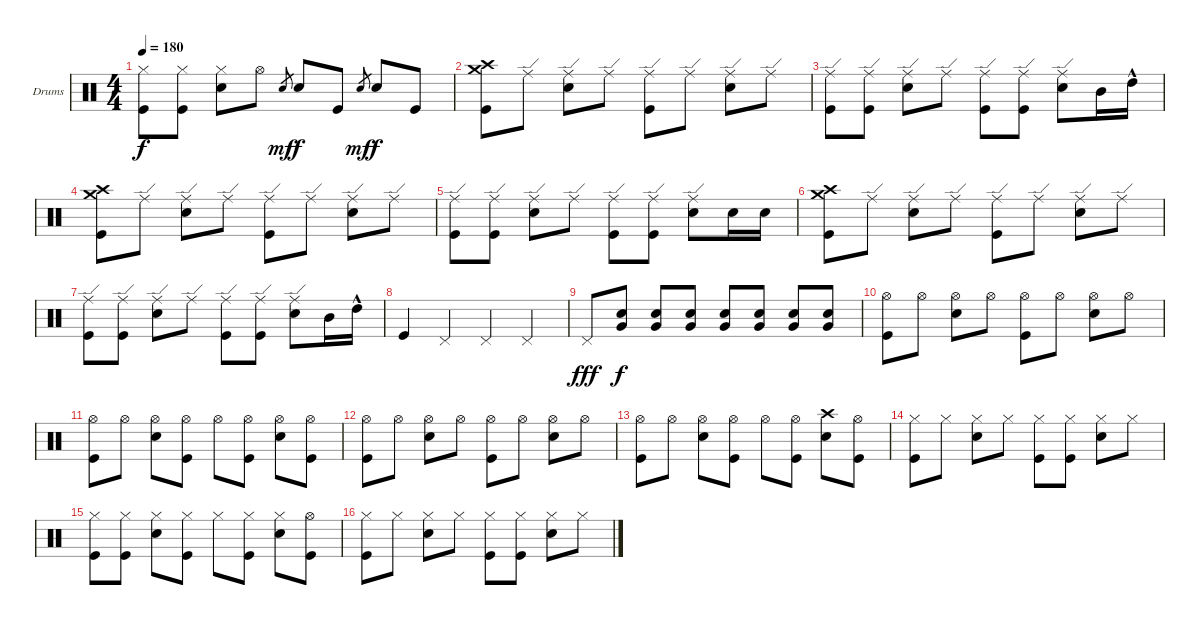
\bracketExtendMode groupsimilarinstruments
\firstSystemTrackNameOrientation horizontal
\otherSystemsTrackNameOrientation horizontal
\track ("Drumkit" "Drums") {instrument percussion}
\staff {score}
\articulation defaults
\ts (4 4)
\tempo 180
\clef neutral
\ks c
("Hi-Hat (closed)" "Kick (hit)").8{dy f} ("Hi-Hat (closed)" "Kick (hit)").8 ("Hi-Hat (closed)" "Snare (hit) 2").8 "Hi-Hat (open)".8 "Snare (hit) 2".8{gr dy mf} "Snare (hit) 2".8{dy f} "Kick (hit)".8 "Snare (hit) 2".8{gr dy mf} "Snare (hit) 2".8{dy f} "Kick (hit)".8 |
("Kick (hit)" "Crash high (hit)" "Crash medium (hit)").8 "Ride (edge)".8 ("Snare (hit) 2" "Ride (edge)").8 "Ride (edge)".8 ("Kick (hit)" "Ride (edge)").8 "Ride (edge)".8 ("Snare (hit) 2" "Ride (edge)").8 "Ride (edge)".8 |
("Kick (hit)" "Ride (edge)").8 ("Kick (hit)" "Ride (edge)").8 ("Snare (hit) 2" "Ride (edge)").8 "Ride (edge)".8 ("Kick (hit)" "Ride (edge)").8 ("Kick (hit)" "Ride (edge)").8 ("Snare (hit) 2" "Ride (edge)").8 "Mid Tom (hit)".16 "High Tom (hit)"{hac}.16 |
("Kick (hit)" "Crash high (hit)" "Crash medium (hit)").8 "Ride (edge)".8 ("Snare (hit) 2" "Ride (edge)").8 "Ride (edge)".8 ("Kick (hit)" "Ride (edge)").8 "Ride (edge)".8 ("Snare (hit) 2" "Ride (edge)").8 "Ride (edge)".8 |
("Kick (hit)" "Ride (edge)").8 ("Kick (hit)" "Ride (edge)").8 ("Snare (hit) 2" "Ride (edge)").8 "Ride (edge)".8 ("Kick (hit)" "Ride (edge)").8 ("Kick (hit)" "Ride (edge)").8 ("Snare (hit) 2" "Ride (edge)").8 "Snare (hit) 2".16 "Snare (hit) 2".16 |
("Kick (hit)" "Crash high (hit)" "Crash medium (hit)").8 "Ride (edge)".8 ("Snare (hit) 2" "Ride (edge)").8 "Ride (edge)".8 ("Kick (hit)" "Ride (edge)").8 "Ride (edge)".8 ("Snare (hit) 2" "Ride (edge)").8 "Ride (edge)".8 |
("Kick (hit)" "Ride (edge)").8 ("Kick (hit)" "Ride (edge)").8 ("Snare (hit) 2" "Ride (edge)").8 "Ride (edge)".8 ("Kick (hit)" "Ride (edge)").8 ("Kick (hit)" "Ride (edge)").8 ("Snare (hit) 2" "Ride (edge)").8 "Mid Tom (hit)".16 "High Tom (hit)"{hac}.16 |
"Kick (hit)".4 "Pedal Hi-Hat (hit)".4 "Pedal Hi-Hat (hit)".4 "Pedal Hi-Hat (hit)".4 |
"Pedal Hi-Hat (hit)".8{dy fff} ("Snare (hit) 2" "Very Low Tom (hit)").8{dy f} ("Snare (hit) 2" "Very Low Tom (hit)").8 ("Snare (hit) 2" "Very Low Tom (hit)").8 ("Snare (hit) 2" "Very Low Tom (hit)").8 ("Snare (hit) 2" "Very Low Tom (hit)").8 ("Snare (hit) 2" "Very Low Tom (hit)").8 ("Snare (hit) 2" "Very Low Tom (hit)").8 |
("Hi-Hat (open)" "Kick (hit)").8 "Hi-Hat (open)".8 ("Hi-Hat (open)" "Snare (hit) 2").8 "Hi-Hat (open)".8 ("Hi-Hat (open)" "Kick (hit)").8 "Hi-Hat (open)".8 ("Hi-Hat (open)" "Snare (hit) 2").8 "Hi-Hat (open)".8 |
("Hi-Hat (open)" "Kick (hit)").8 "Hi-Hat (open)".8 ("Hi-Hat (open)" "Snare (hit) 2").8 ("Hi-Hat (open)" "Kick (hit)").8 "Hi-Hat (open)".8 ("Hi-Hat (open)" "Kick (hit)").8 ("Hi-Hat (open)" "Snare (hit) 2").8 ("Hi-Hat (open)" "Kick (hit)").8 |
("Hi-Hat (open)" "Kick (hit)").8 "Hi-Hat (open)".8 ("Hi-Hat (open)" "Snare (hit) 2").8 "Hi-Hat (open)".8 ("Hi-Hat (open)" "Kick (hit)").8 "Hi-Hat (open)".8 ("Hi-Hat (open)" "Snare (hit) 2").8 "Hi-Hat (open)".8 |
("Hi-Hat (open)" "Kick (hit)").8 "Hi-Hat (open)".8 ("Hi-Hat (open)" "Snare (hit) 2").8 ("Hi-Hat (open)" "Kick (hit)").8 "Hi-Hat (open)".8 ("Hi-Hat (open)" "Kick (hit)").8 ("Crash high (hit)" "Snare (hit) 2").8 ("Hi-Hat (open)" "Kick (hit)").8 |
("Hi-Hat (closed)" "Kick (hit)").8 "Hi-Hat (closed)".8 ("Hi-Hat (closed)" "Snare (hit) 2").8 "Hi-Hat (closed)".8 ("Hi-Hat (closed)" "Kick (hit)").8 ("Hi-Hat (closed)" "Kick (hit)").8 ("Hi-Hat (closed)" "Snare (hit) 2").8 "Hi-Hat (closed)".8 |
("Hi-Hat (closed)" "Kick (hit)").8 ("Hi-Hat (closed)" "Kick (hit)").8 ("Hi-Hat (closed)" "Snare (hit) 2").8 ("Hi-Hat (closed)" "Kick (hit)").8 "Hi-Hat (closed)".8 ("Hi-Hat (closed)" "Kick (hit)").8 ("Hi-Hat (closed)" "Snare (hit) 2").8 ("Hi-Hat (open)" "Kick (hit)").8 |
("Hi-Hat (closed)" "Kick (hit)").8 "Hi-Hat (closed)".8 ("Hi-Hat (closed)" "Snare (hit) 2").8 "Hi-Hat (closed)".8 ("Hi-Hat (closed)" "Kick (hit)").8 ("Hi-Hat (closed)" "Kick (hit)").8 ("Hi-Hat (closed)" "Snare (hit) 2").8 "Hi-Hat (closed)".8
